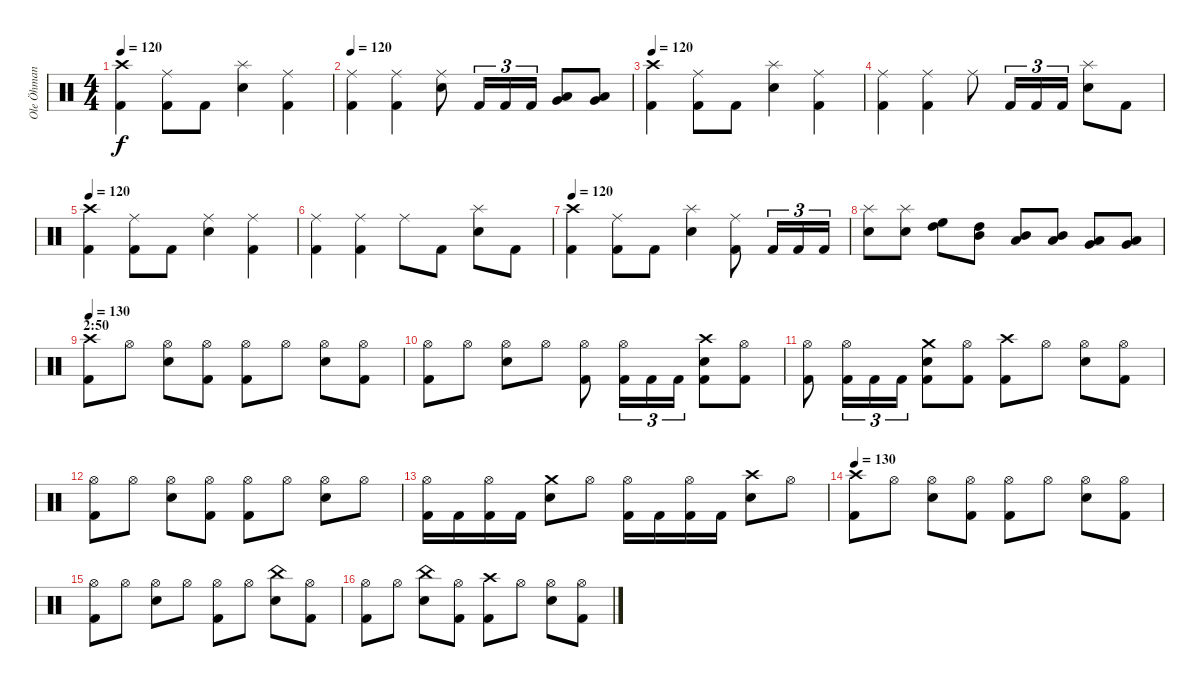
\track ("Ole Öhman" "Ole Öhman") {instrument percussion}
\staff {score}
\articulation defaults
\ts (4 4)
\tempo 120
\clef neutral
\ks c
("Crash high (hit)" "Kick (hit) 2").4{dy f} ("Ride (middle)" "Kick (hit) 2").8 "Kick (hit) 2".8 ("Splash (hit)" "Electric Snare (hit)").4 ("Ride (middle)" "Kick (hit) 2").4 |
\tempo 120
("Ride (middle)" "Kick (hit) 2").4 ("Ride (middle)" "Kick (hit) 2").4 ("Ride (middle)" "Electric Snare (hit)").8 "Kick (hit) 2".16{tu (3 2)} "Kick (hit) 2".16{tu (3 2)} "Kick (hit) 2".16{tu (3 2)} ("Low Tom (hit)" "Very Low Tom (hit)").8 ("Very Low Tom (hit)" "Low Floor Tom (hit)").8 |
\tempo 120
("Crash high (hit)" "Kick (hit) 2").4 ("Ride (middle)" "Kick (hit) 2").8 "Kick (hit) 2".8 ("Splash (hit)" "Electric Snare (hit)").4 ("Ride (middle)" "Kick (hit) 2").4 |
("Ride (middle)" "Kick (hit) 2").4 ("Ride (middle)" "Kick (hit) 2").4 "Ride (middle)".8 "Kick (hit) 2".16{tu (3 2)} "Kick (hit) 2".16{tu (3 2)} "Kick (hit) 2".16{tu (3 2)} ("Splash (hit)" "Electric Snare (hit)").8 "Kick (hit) 2".8 |
\tempo 120
("Crash high (hit)" "Kick (hit) 2").4 ("Ride (middle)" "Kick (hit) 2").8 "Kick (hit) 2".8 ("Ride (middle)" "Electric Snare (hit)").4 ("Ride (middle)" "Kick (hit) 2").4 |
("Ride (middle)" "Kick (hit) 2").4 ("Ride (middle)" "Kick (hit) 2").4 "Ride (middle)".8 "Kick (hit) 2".8 ("Splash (hit)" "Electric Snare (hit)").8 "Kick (hit) 2".8 |
\tempo 120
("Crash high (hit)" "Kick (hit) 2").4 ("Ride (middle)" "Kick (hit) 2").8 "Kick (hit) 2".8 ("Splash (hit)" "Electric Snare (hit)").4 ("Ride (middle)" "Kick (hit) 2").8 "Kick (hit) 2".16{tu (3 2)} "Kick (hit) 2".16{tu (3 2)} "Kick (hit) 2".16{tu (3 2)} |
("Splash (hit)" "Electric Snare (hit)").8 ("Splash (hit)" "Electric Snare (hit)").8 ("High Tom (hit)" "High Floor Tom (hit)").8 ("Mid Tom (hit)" "High Tom (hit)").8 ("Low Tom (hit)" "Mid Tom (hit)").8 ("Low Tom (hit)" "Mid Tom (hit)").8 ("Very Low Tom (hit)" "Low Tom (hit)").8 ("Low Floor Tom (hit)" "Very Low Tom (hit)").8 |
\section ("" "2:50")
\tempo 130
("Crash high (hit)" "Kick (hit) 2").8 "Hi-Hat (open)".8 ("Hi-Hat (open)" "Electric Snare (hit)").8 ("Hi-Hat (open)" "Kick (hit) 2").8 ("Hi-Hat (open)" "Kick (hit) 2").8 "Hi-Hat (open)".8 ("Hi-Hat (open)" "Electric Snare (hit)").8 ("Hi-Hat (open)" "Kick (hit) 2").8 |
("Hi-Hat (open)" "Kick (hit) 2").8 "Hi-Hat (open)".8 ("Hi-Hat (open)" "Electric Snare (hit)").8 "Hi-Hat (open)".8 ("Hi-Hat (open)" "Kick (hit) 2").8 ("Hi-Hat (open)" "Kick (hit) 2").16{tu (3 2)} "Kick (hit) 2".16{tu (3 2)} "Kick (hit) 2".16{tu (3 2)} ("Crash high (hit)" "Electric Snare (hit)" "Kick (hit) 2").8 ("Hi-Hat (open)" "Kick (hit) 2").8 |
("Hi-Hat (open)" "Kick (hit) 2").8 ("Hi-Hat (open)" "Kick (hit) 2").16{tu (3 2)} "Kick (hit) 2".16{tu (3 2)} "Kick (hit) 2".16{tu (3 2)} ("Crash medium (hit)" "Electric Snare (hit)" "Kick (hit) 2").8 ("Hi-Hat (open)" "Kick (hit) 2").8 ("Crash high (hit)" "Kick (hit) 2").8 "Hi-Hat (open)".8 ("Hi-Hat (open)" "Electric Snare (hit)").8 ("Hi-Hat (open)" "Kick (hit) 2").8 |
("Hi-Hat (open)" "Kick (hit) 2").8 "Hi-Hat (open)".8 ("Hi-Hat (open)" "Electric Snare (hit)").8 ("Hi-Hat (open)" "Kick (hit) 2").8 ("Hi-Hat (open)" "Kick (hit) 2").8 "Hi-Hat (open)".8 ("Hi-Hat (open)" "Electric Snare (hit)").8 "Hi-Hat (open)".8 |
("Hi-Hat (open)" "Kick (hit) 2").16 "Kick (hit) 2".16 ("Hi-Hat (open)" "Kick (hit) 2").16 "Kick (hit) 2".16 ("Crash medium (hit)" "Electric Snare (hit)").8 "Hi-Hat (open)".8 ("Hi-Hat (open)" "Kick (hit) 2").16 "Kick (hit) 2".16 ("Hi-Hat (open)" "Kick (hit) 2").16 "Kick (hit) 2".16 ("Crash high (hit)" "Electric Snare (hit)").8 "Hi-Hat (open)".8 |
\tempo 130
("Crash high (hit)" "Kick (hit) 2").8 "Hi-Hat (open)".8 ("Hi-Hat (open)" "Electric Snare (hit)").8 ("Hi-Hat (open)" "Kick (hit) 2").8 ("Hi-Hat (open)" "Kick (hit) 2").8 "Hi-Hat (open)".8 ("Hi-Hat (open)" "Electric Snare (hit)").8 ("Hi-Hat (open)" "Kick (hit) 2").8 |
("Hi-Hat (open)" "Kick (hit) 2").8 "Hi-Hat (open)".8 ("Hi-Hat (open)" "Electric Snare (hit)").8 "Hi-Hat (open)".8 ("Hi-Hat (open)" "Kick (hit) 2").8 "Hi-Hat (open)".8 ("China (hit)" "Electric Snare (hit)").8 ("Hi-Hat (open)" "Kick (hit) 2").8 |
("Hi-Hat (open)" "Kick (hit) 2").8 "Hi-Hat (open)".8 ("China (hit)" "Electric Snare (hit)").8 ("Hi-Hat (open)" "Kick (hit) 2").8 ("Crash high (hit)" "Kick (hit) 2").8 "Hi-Hat (open)".8 ("Hi-Hat (open)" "Electric Snare (hit)").8 ("Hi-Hat (open)" "Kick (hit) 2").8
